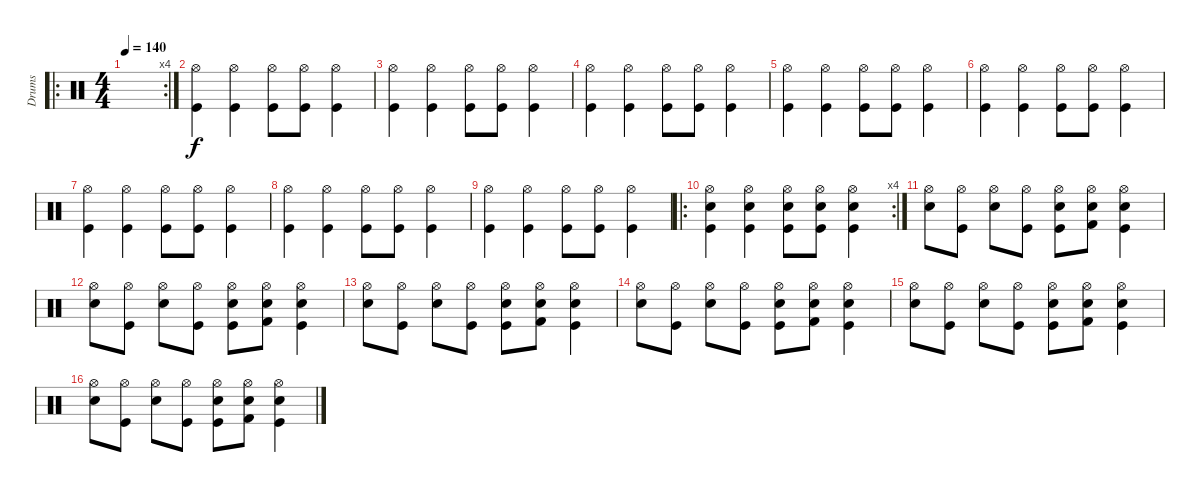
\track ("Drums" "Drums") {instrument percussion}
\staff {score}
\articulation defaults
\ro
\rc 4
\ts (4 4)
\section ("" "")
\tempo 140
\clef neutral
\ks c
|
("Hi-Hat (open)" "Kick (hit)").4 ("Hi-Hat (open)" "Kick (hit)").4 ("Hi-Hat (open)" "Kick (hit)").8 ("Hi-Hat (open)" "Kick (hit)").8 ("Hi-Hat (open)" "Kick (hit)").4 |
("Hi-Hat (open)" "Kick (hit)").4 ("Hi-Hat (open)" "Kick (hit)").4 ("Hi-Hat (open)" "Kick (hit)").8 ("Hi-Hat (open)" "Kick (hit)").8 ("Hi-Hat (open)" "Kick (hit)").4 |
("Hi-Hat (open)" "Kick (hit)").4 ("Hi-Hat (open)" "Kick (hit)").4 ("Hi-Hat (open)" "Kick (hit)").8 ("Hi-Hat (open)" "Kick (hit)").8 ("Hi-Hat (open)" "Kick (hit)").4 |
("Hi-Hat (open)" "Kick (hit)").4 ("Hi-Hat (open)" "Kick (hit)").4 ("Hi-Hat (open)" "Kick (hit)").8 ("Hi-Hat (open)" "Kick (hit)").8 ("Hi-Hat (open)" "Kick (hit)").4 |
("Hi-Hat (open)" "Kick (hit)").4 ("Hi-Hat (open)" "Kick (hit)").4 ("Hi-Hat (open)" "Kick (hit)").8 ("Hi-Hat (open)" "Kick (hit)").8 ("Hi-Hat (open)" "Kick (hit)").4 |
("Hi-Hat (open)" "Kick (hit)").4 ("Hi-Hat (open)" "Kick (hit)").4 ("Hi-Hat (open)" "Kick (hit)").8 ("Hi-Hat (open)" "Kick (hit)").8 ("Hi-Hat (open)" "Kick (hit)").4 |
("Hi-Hat (open)" "Kick (hit)").4 ("Hi-Hat (open)" "Kick (hit)").4 ("Hi-Hat (open)" "Kick (hit)").8 ("Hi-Hat (open)" "Kick (hit)").8 ("Hi-Hat (open)" "Kick (hit)").4 |
("Hi-Hat (open)" "Kick (hit)").4 ("Hi-Hat (open)" "Kick (hit)").4 ("Hi-Hat (open)" "Kick (hit)").8 ("Hi-Hat (open)" "Kick (hit)").8 ("Hi-Hat (open)" "Kick (hit)").4 |
\ro
\rc 4
("Hi-Hat (open)" "Snare (hit) 2" "Kick (hit)").4 ("Hi-Hat (open)" "Snare (hit) 2" "Kick (hit)").4 ("Hi-Hat (open)" "Snare (hit) 2" "Kick (hit)").8 ("Hi-Hat (open)" "Snare (hit) 2" "Kick (hit)").8 ("Hi-Hat (open)" "Snare (hit) 2" "Kick (hit)").4 |
("Hi-Hat (open)" "Snare (hit) 2").8 ("Hi-Hat (open)" "Kick (hit)").8 ("Hi-Hat (open)" "Snare (hit) 2").8 ("Hi-Hat (open)" "Kick (hit)").8 ("Hi-Hat (open)" "Snare (hit) 2" "Kick (hit)").8 ("Hi-Hat (open)" "Snare (hit) 2" "Kick (hit) 2").8 ("Hi-Hat (open)" "Kick (hit)" "Snare (hit) 2").4 |
("Hi-Hat (open)" "Snare (hit) 2").8 ("Hi-Hat (open)" "Kick (hit)").8 ("Hi-Hat (open)" "Snare (hit) 2").8 ("Hi-Hat (open)" "Kick (hit)").8 ("Hi-Hat (open)" "Snare (hit) 2" "Kick (hit)").8 ("Hi-Hat (open)" "Snare (hit) 2" "Kick (hit) 2").8 ("Hi-Hat (open)" "Kick (hit)" "Snare (hit) 2").4 |
("Hi-Hat (open)" "Snare (hit) 2").8 ("Hi-Hat (open)" "Kick (hit)").8 ("Hi-Hat (open)" "Snare (hit) 2").8 ("Hi-Hat (open)" "Kick (hit)").8 ("Hi-Hat (open)" "Snare (hit) 2" "Kick (hit)").8 ("Hi-Hat (open)" "Snare (hit) 2" "Kick (hit) 2").8 ("Hi-Hat (open)" "Kick (hit)" "Snare (hit) 2").4 |
("Hi-Hat (open)" "Snare (hit) 2").8 ("Hi-Hat (open)" "Kick (hit)").8 ("Hi-Hat (open)" "Snare (hit) 2").8 ("Hi-Hat (open)" "Kick (hit)").8 ("Hi-Hat (open)" "Snare (hit) 2" "Kick (hit)").8 ("Hi-Hat (open)" "Snare (hit) 2" "Kick (hit) 2").8 ("Hi-Hat (open)" "Kick (hit)" "Snare (hit) 2").4 |
("Hi-Hat (open)" "Snare (hit) 2").8 ("Hi-Hat (open)" "Kick (hit)").8 ("Hi-Hat (open)" "Snare (hit) 2").8 ("Hi-Hat (open)" "Kick (hit)").8 ("Hi-Hat (open)" "Snare (hit) 2" "Kick (hit)").8 ("Hi-Hat (open)" "Snare (hit) 2" "Kick (hit) 2").8 ("Hi-Hat (open)" "Kick (hit)" "Snare (hit) 2").4 |
("Hi-Hat (open)" "Snare (hit) 2").8 ("Hi-Hat (open)" "Kick (hit)").8 ("Hi-Hat (open)" "Snare (hit) 2").8 ("Hi-Hat (open)" "Kick (hit)").8 ("Hi-Hat (open)" "Snare (hit) 2" "Kick (hit)").8 ("Hi-Hat (open)" "Snare (hit) 2" "Kick (hit) 2").8 ("Hi-Hat (open)" "Kick (hit)" "Snare (hit) 2").4
